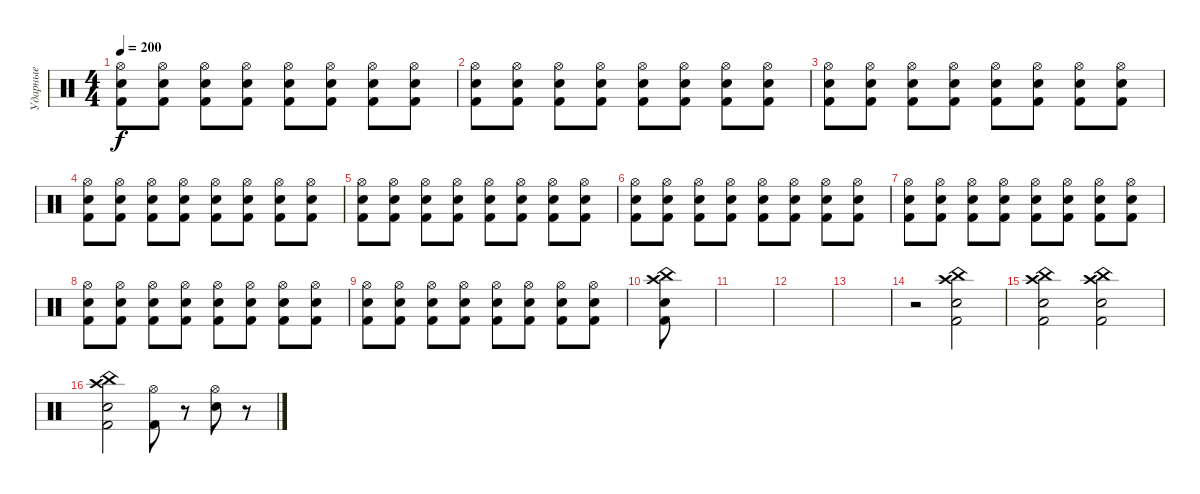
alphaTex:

\track ("Ударные" "Ударные") {instrument percussion}
\staff {score}
\articulation defaults
\ts (4 4)
\tempo 200
\clef neutral
\ks c
("Kick (hit) 2" "Electric Snare (hit)" "Hi-Hat (open)").8{dy f} ("Hi-Hat (open)" "Kick (hit) 2" "Electric Snare (hit)").8 ("Electric Snare (hit)" "Kick (hit) 2" "Hi-Hat (open)").8 ("Hi-Hat (open)" "Kick (hit) 2" "Electric Snare (hit)").8 ("Hi-Hat (open)" "Kick (hit) 2" "Electric Snare (hit)").8 ("Electric Snare (hit)" "Kick (hit) 2" "Hi-Hat (open)").8 ("Hi-Hat (open)" "Kick (hit) 2" "Electric Snare (hit)").8 ("Electric Snare (hit)" "Kick (hit) 2" "Hi-Hat (open)").8 |
("Kick (hit) 2" "Electric Snare (hit)" "Hi-Hat (open)").8 ("Hi-Hat (open)" "Kick (hit) 2" "Electric Snare (hit)").8 ("Electric Snare (hit)" "Kick (hit) 2" "Hi-Hat (open)").8 ("Hi-Hat (open)" "Kick (hit) 2" "Electric Snare (hit)").8 ("Hi-Hat (open)" "Kick (hit) 2" "Electric Snare (hit)").8 ("Electric Snare (hit)" "Kick (hit) 2" "Hi-Hat (open)").8 ("Hi-Hat (open)" "Kick (hit) 2" "Electric Snare (hit)").8 ("Electric Snare (hit)" "Kick (hit) 2" "Hi-Hat (open)").8 |
("Kick (hit) 2" "Electric Snare (hit)" "Hi-Hat (open)").8 ("Hi-Hat (open)" "Kick (hit) 2" "Electric Snare (hit)").8 ("Electric Snare (hit)" "Kick (hit) 2" "Hi-Hat (open)").8 ("Hi-Hat (open)" "Kick (hit) 2" "Electric Snare (hit)").8 ("Hi-Hat (open)" "Kick (hit) 2" "Electric Snare (hit)").8 ("Electric Snare (hit)" "Kick (hit) 2" "Hi-Hat (open)").8 ("Hi-Hat (open)" "Kick (hit) 2" "Electric Snare (hit)").8 ("Electric Snare (hit)" "Kick (hit) 2" "Hi-Hat (open)").8 |
("Kick (hit) 2" "Electric Snare (hit)" "Hi-Hat (open)").8 ("Hi-Hat (open)" "Kick (hit) 2" "Electric Snare (hit)").8 ("Electric Snare (hit)" "Kick (hit) 2" "Hi-Hat (open)").8 ("Hi-Hat (open)" "Kick (hit) 2" "Electric Snare (hit)").8 ("Hi-Hat (open)" "Kick (hit) 2" "Electric Snare (hit)").8 ("Electric Snare (hit)" "Kick (hit) 2" "Hi-Hat (open)").8 ("Hi-Hat (open)" "Kick (hit) 2" "Electric Snare (hit)").8 ("Electric Snare (hit)" "Kick (hit) 2" "Hi-Hat (open)").8 |
("Kick (hit) 2" "Electric Snare (hit)" "Hi-Hat (open)").8 ("Hi-Hat (open)" "Kick (hit) 2" "Electric Snare (hit)").8 ("Electric Snare (hit)" "Kick (hit) 2" "Hi-Hat (open)").8 ("Hi-Hat (open)" "Kick (hit) 2" "Electric Snare (hit)").8 ("Hi-Hat (open)" "Kick (hit) 2" "Electric Snare (hit)").8 ("Electric Snare (hit)" "Kick (hit) 2" "Hi-Hat (open)").8 ("Hi-Hat (open)" "Kick (hit) 2" "Electric Snare (hit)").8 ("Electric Snare (hit)" "Kick (hit) 2" "Hi-Hat (open)").8 |
("Kick (hit) 2" "Electric Snare (hit)" "Hi-Hat (open)").8 ("Hi-Hat (open)" "Kick (hit) 2" "Electric Snare (hit)").8 ("Electric Snare (hit)" "Kick (hit) 2" "Hi-Hat (open)").8 ("Hi-Hat (open)" "Kick (hit) 2" "Electric Snare (hit)").8 ("Hi-Hat (open)" "Kick (hit) 2" "Electric Snare (hit)").8 ("Electric Snare (hit)" "Kick (hit) 2" "Hi-Hat (open)").8 ("Hi-Hat (open)" "Kick (hit) 2" "Electric Snare (hit)").8 ("Electric Snare (hit)" "Kick (hit) 2" "Hi-Hat (open)").8 |
("Kick (hit) 2" "Electric Snare (hit)" "Hi-Hat (open)").8 ("Hi-Hat (open)" "Kick (hit) 2" "Electric Snare (hit)").8 ("Electric Snare (hit)" "Kick (hit) 2" "Hi-Hat (open)").8 ("Hi-Hat (open)" "Kick (hit) 2" "Electric Snare (hit)").8 ("Hi-Hat (open)" "Kick (hit) 2" "Electric Snare (hit)").8 ("Electric Snare (hit)" "Kick (hit) 2" "Hi-Hat (open)").8 ("Hi-Hat (open)" "Kick (hit) 2" "Electric Snare (hit)").8 ("Electric Snare (hit)" "Kick (hit) 2" "Hi-Hat (open)").8 |
("Kick (hit) 2" "Electric Snare (hit)" "Hi-Hat (open)").8 ("Hi-Hat (open)" "Kick (hit) 2" "Electric Snare (hit)").8 ("Electric Snare (hit)" "Kick (hit) 2" "Hi-Hat (open)").8 ("Hi-Hat (open)" "Kick (hit) 2" "Electric Snare (hit)").8 ("Hi-Hat (open)" "Kick (hit) 2" "Electric Snare (hit)").8 ("Electric Snare (hit)" "Kick (hit) 2" "Hi-Hat (open)").8 ("Hi-Hat (open)" "Kick (hit) 2" "Electric Snare (hit)").8 ("Electric Snare (hit)" "Kick (hit) 2" "Hi-Hat (open)").8 |
("Kick (hit) 2" "Electric Snare (hit)" "Hi-Hat (open)").8 ("Hi-Hat (open)" "Kick (hit) 2" "Electric Snare (hit)").8 ("Electric Snare (hit)" "Kick (hit) 2" "Hi-Hat (open)").8 ("Hi-Hat (open)" "Kick (hit) 2" "Electric Snare (hit)").8 ("Hi-Hat (open)" "Kick (hit) 2" "Electric Snare (hit)").8 ("Electric Snare (hit)" "Kick (hit) 2" "Hi-Hat (open)").8 ("Hi-Hat (open)" "Kick (hit) 2" "Electric Snare (hit)").8 ("Electric Snare (hit)" "Kick (hit) 2" "Hi-Hat (open)").8 |
("Kick (hit) 2" "Crash high (hit)" "China (hit)" "Electric Snare (hit)").8 |
|
|
|
r.2 ("Electric Snare (hit)" "Kick (hit) 2" "Crash high (hit)" "China (hit)").2 |
("China (hit)" "Crash high (hit)" "Kick (hit) 2" "Electric Snare (hit)").2 ("Electric Snare (hit)" "Kick (hit) 2" "Crash high (hit)" "China (hit)").2 |
("China (hit)" "Crash high (hit)" "Kick (hit) 2" "Electric Snare (hit)").2 ("Kick (hit) 2" "Hi-Hat (open)").8 r.8 ("Electric Snare (hit)" "Hi-Hat (open)").8 r.8
